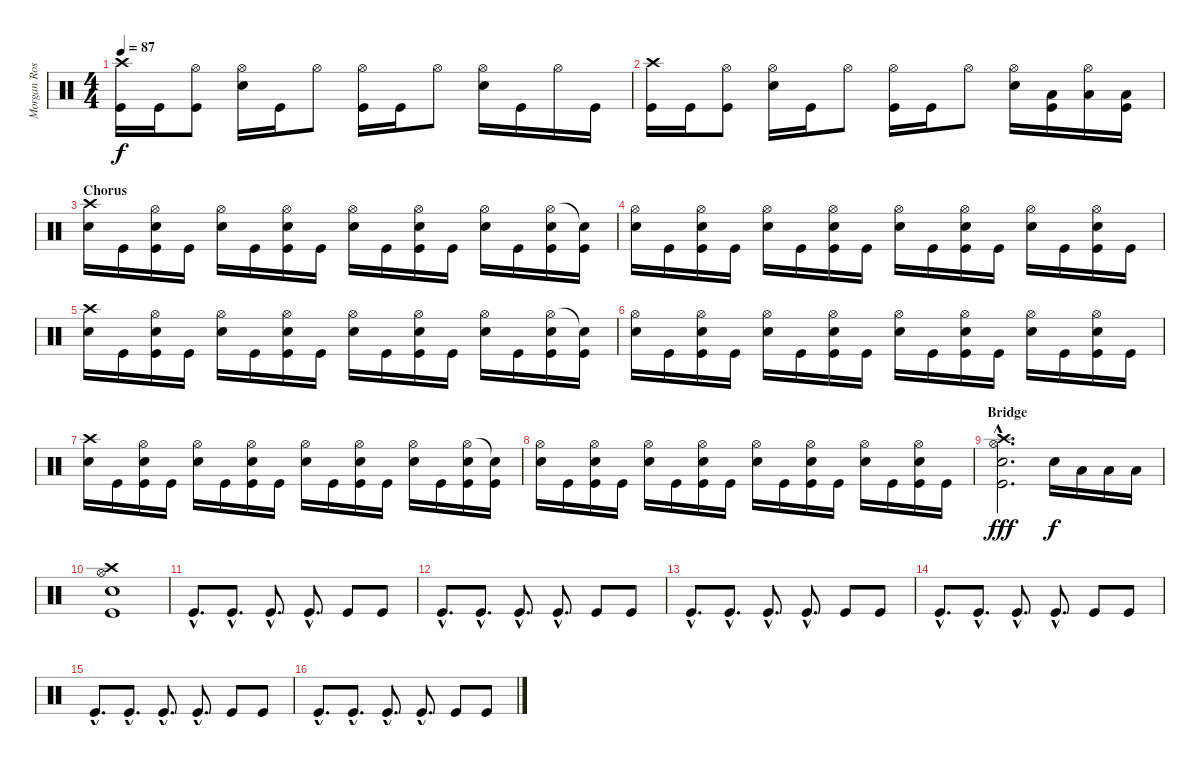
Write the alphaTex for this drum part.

\track ("Morgan Rose" "Morgan Ros") {instrument percussion}
\staff {score}
\articulation defaults
\ts (4 4)
\tempo 87
\clef neutral
\ks c
("Crash high (hit)" "Kick (hit)").16{dy f} "Kick (hit)".16 ("Hi-Hat (open)" "Kick (hit)").8 ("Hi-Hat (open)" "Snare (hit) 2").16 "Kick (hit)".16 "Hi-Hat (open)".8 ("Hi-Hat (open)" "Kick (hit)").16 "Kick (hit)".16 "Hi-Hat (open)".8 ("Hi-Hat (open)" "Snare (hit) 2").16 "Kick (hit)".16 "Hi-Hat (open)".16 "Kick (hit)".16 |
("Crash high (hit)" "Kick (hit)").16 "Kick (hit)".16 ("Hi-Hat (open)" "Kick (hit)").8 ("Hi-Hat (open)" "Snare (hit) 2").16 "Kick (hit)".16 "Hi-Hat (open)".8 ("Hi-Hat (open)" "Kick (hit)").16 "Kick (hit)".16 "Hi-Hat (open)".8 ("Hi-Hat (open)" "Snare (hit) 2").16 ("Low Tom (hit)" "Kick (hit)").16 ("Hi-Hat (open)" "Low Tom (hit)").16 ("Low Tom (hit)" "Kick (hit)").16 |
\section ("" "Chorus")
("Crash high (hit)" "Snare (hit) 2").16 "Kick (hit)".16 ("Hi-Hat (open)" "Snare (hit) 2" "Kick (hit)").16 "Kick (hit)".16 ("Hi-Hat (open)" "Snare (hit) 2").16 "Kick (hit)".16 ("Hi-Hat (open)" "Snare (hit) 2" "Kick (hit)").16 "Kick (hit)".16 ("Hi-Hat (open)" "Snare (hit) 2").16 "Kick (hit)".16 ("Hi-Hat (open)" "Snare (hit) 2" "Kick (hit)").16 "Kick (hit)".16 ("Hi-Hat (open)" "Snare (hit) 2").16 "Kick (hit)".16 ("Hi-Hat (open)" "Snare (hit) 2" "Kick (hit)").16 ("Snare (hit)"{t} "Kick (hit)").16 |
("Hi-Hat (open)" "Snare (hit) 2").16 "Kick (hit)".16 ("Hi-Hat (open)" "Snare (hit) 2" "Kick (hit)").16 "Kick (hit)".16 ("Hi-Hat (open)" "Snare (hit) 2").16 "Kick (hit)".16 ("Hi-Hat (open)" "Snare (hit) 2" "Kick (hit)").16 "Kick (hit)".16 ("Hi-Hat (open)" "Snare (hit) 2").16 "Kick (hit)".16 ("Hi-Hat (open)" "Snare (hit) 2" "Kick (hit)").16 "Kick (hit)".16 ("Hi-Hat (open)" "Snare (hit) 2").16 "Kick (hit)".16 ("Hi-Hat (open)" "Snare (hit) 2" "Kick (hit)").16 "Kick (hit)".16 |
("Crash high (hit)" "Snare (hit) 2").16 "Kick (hit)".16 ("Hi-Hat (open)" "Snare (hit) 2" "Kick (hit)").16 "Kick (hit)".16 ("Hi-Hat (open)" "Snare (hit) 2").16 "Kick (hit)".16 ("Hi-Hat (open)" "Snare (hit) 2" "Kick (hit)").16 "Kick (hit)".16 ("Hi-Hat (open)" "Snare (hit) 2").16 "Kick (hit)".16 ("Hi-Hat (open)" "Snare (hit) 2" "Kick (hit)").16 "Kick (hit)".16 ("Hi-Hat (open)" "Snare (hit) 2").16 "Kick (hit)".16 ("Hi-Hat (open)" "Snare (hit) 2" "Kick (hit)").16 ("Snare (hit)"{t} "Kick (hit)").16 |
("Hi-Hat (open)" "Snare (hit) 2").16 "Kick (hit)".16 ("Hi-Hat (open)" "Snare (hit) 2" "Kick (hit)").16 "Kick (hit)".16 ("Hi-Hat (open)" "Snare (hit) 2").16 "Kick (hit)".16 ("Hi-Hat (open)" "Snare (hit) 2" "Kick (hit)").16 "Kick (hit)".16 ("Hi-Hat (open)" "Snare (hit) 2").16 "Kick (hit)".16 ("Hi-Hat (open)" "Snare (hit) 2" "Kick (hit)").16 "Kick (hit)".16 ("Hi-Hat (open)" "Snare (hit) 2").16 "Kick (hit)".16 ("Hi-Hat (open)" "Snare (hit) 2" "Kick (hit)").16 "Kick (hit)".16 |
("Crash high (hit)" "Snare (hit) 2").16 "Kick (hit)".16 ("Hi-Hat (open)" "Snare (hit) 2" "Kick (hit)").16 "Kick (hit)".16 ("Hi-Hat (open)" "Snare (hit) 2").16 "Kick (hit)".16 ("Hi-Hat (open)" "Snare (hit) 2" "Kick (hit)").16 "Kick (hit)".16 ("Hi-Hat (open)" "Snare (hit) 2").16 "Kick (hit)".16 ("Hi-Hat (open)" "Snare (hit) 2" "Kick (hit)").16 "Kick (hit)".16 ("Hi-Hat (open)" "Snare (hit) 2").16 "Kick (hit)".16 ("Hi-Hat (open)" "Snare (hit) 2" "Kick (hit)").16 ("Snare (hit)"{t} "Kick (hit)").16 |
("Hi-Hat (open)" "Snare (hit) 2").16 "Kick (hit)".16 ("Hi-Hat (open)" "Snare (hit) 2" "Kick (hit)").16 "Kick (hit)".16 ("Hi-Hat (open)" "Snare (hit) 2").16 "Kick (hit)".16 ("Hi-Hat (open)" "Snare (hit) 2" "Kick (hit)").16 "Kick (hit)".16 ("Hi-Hat (open)" "Snare (hit) 2").16 "Kick (hit)".16 ("Hi-Hat (open)" "Snare (hit) 2" "Kick (hit)").16 "Kick (hit)".16 ("Hi-Hat (open)" "Snare (hit) 2").16 "Kick (hit)".16 ("Hi-Hat (open)" "Snare (hit) 2" "Kick (hit)").16 "Kick (hit)".16 |
\section ("" "Bridge")
("Crash high (hit)"{hac} "Hi-Hat (open)"{hac} "Snare (hit) 2"{hac} "Kick (hit)"{hac}).2{d dy fff} "Snare (hit) 2".16{dy f} "Low Tom (hit)".16 "Low Tom (hit)".16 "Low Tom (hit)".16 |
("Crash high (hit)" "Hi-Hat (open)" "Snare (hit) 2" "Kick (hit)").1 |
"Kick (hit)"{hac}.8{d} "Kick (hit)"{hac}.8{d} "Kick (hit)"{hac}.8{d} "Kick (hit)"{hac}.8{d} "Kick (hit)".8 "Kick (hit)".8 |
"Kick (hit)"{hac}.8{d} "Kick (hit)"{hac}.8{d} "Kick (hit)"{hac}.8{d} "Kick (hit)"{hac}.8{d} "Kick (hit)".8 "Kick (hit)".8 |
"Kick (hit)"{hac}.8{d} "Kick (hit)"{hac}.8{d} "Kick (hit)"{hac}.8{d} "Kick (hit)"{hac}.8{d} "Kick (hit)".8 "Kick (hit)".8 |
"Kick (hit)"{hac}.8{d} "Kick (hit)"{hac}.8{d} "Kick (hit)"{hac}.8{d} "Kick (hit)"{hac}.8{d} "Kick (hit)".8 "Kick (hit)".8 |
"Kick (hit)"{hac}.8{d} "Kick (hit)"{hac}.8{d} "Kick (hit)"{hac}.8{d} "Kick (hit)"{hac}.8{d} "Kick (hit)".8 "Kick (hit)".8 |
"Kick (hit)"{hac}.8{d} "Kick (hit)"{hac}.8{d} "Kick (hit)"{hac}.8{d} "Kick (hit)"{hac}.8{d} "Kick (hit)".8 "Kick (hit)".8
